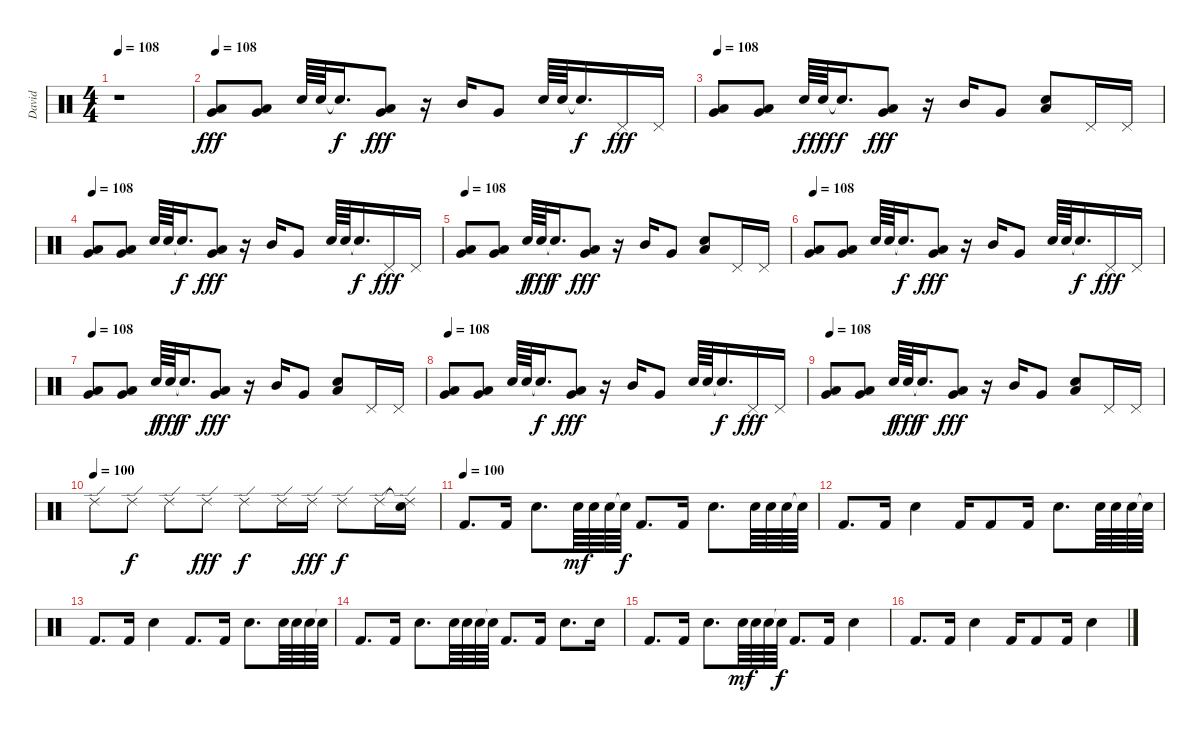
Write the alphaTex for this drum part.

\track ("David" "David") {instrument percussion}
\staff {score}
\articulation defaults
\ts (4 4)
\tempo 108
\clef neutral
\ks c
r.1{dy f} |
\tempo 108
("Low Tom (hit)" "Very Low Tom (hit)").8{dy fff} ("Low Tom (hit)" "Very Low Tom (hit)").8 "Snare (hit) 2".64 "Snare (hit) 2".64 "Snare (hit)"{t}.16{d dy f} ("Low Tom (hit)" "Very Low Tom (hit)").8{dy fff} r.16 "Mid Tom (hit)".16 "Very Low Tom (hit)".8 "Snare (hit) 2".64 "Snare (hit) 2".64 "Snare (hit) 2"{t}.16{d dy f} "Pedal Hi-Hat (hit)".16{dy fff} "Pedal Hi-Hat (hit)".16 |
\tempo 108
("Low Tom (hit)" "Very Low Tom (hit)").8 ("Low Tom (hit)" "Very Low Tom (hit)").8 "Snare (hit) 2".64{dy f} "Snare (hit) 2".64{dy fff} "Snare (hit)"{t}.16{d dy f} ("Low Tom (hit)" "Very Low Tom (hit)").8{dy fff} r.16 "Mid Tom (hit)".16 "Very Low Tom (hit)".8 ("Snare (hit) 2" "Low Floor Tom (hit)").8 "Pedal Hi-Hat (hit)".16 "Pedal Hi-Hat (hit)".16 |
\tempo 108
("Low Tom (hit)" "Very Low Tom (hit)").8 ("Low Tom (hit)" "Very Low Tom (hit)").8 "Snare (hit) 2".64 "Snare (hit) 2".64 "Snare (hit)"{t}.16{d dy f} ("Low Tom (hit)" "Very Low Tom (hit)").8{dy fff} r.16 "Mid Tom (hit)".16 "Very Low Tom (hit)".8 "Snare (hit) 2".64 "Snare (hit) 2".64 "Snare (hit) 2"{t}.16{d dy f} "Pedal Hi-Hat (hit)".16{dy fff} "Pedal Hi-Hat (hit)".16 |
\tempo 108
("Low Tom (hit)" "Very Low Tom (hit)").8 ("Low Tom (hit)" "Very Low Tom (hit)").8 "Snare (hit) 2".64{dy f} "Snare (hit) 2".64{dy fff} "Snare (hit)"{t}.16{d dy f} ("Low Tom (hit)" "Very Low Tom (hit)").8{dy fff} r.16 "Mid Tom (hit)".16 "Very Low Tom (hit)".8 ("Snare (hit) 2" "Low Floor Tom (hit)").8 "Pedal Hi-Hat (hit)".16 "Pedal Hi-Hat (hit)".16 |
\tempo 108
("Low Tom (hit)" "Very Low Tom (hit)").8 ("Low Tom (hit)" "Very Low Tom (hit)").8 "Snare (hit) 2".64 "Snare (hit) 2".64 "Snare (hit)"{t}.16{d dy f} ("Low Tom (hit)" "Very Low Tom (hit)").8{dy fff} r.16 "Mid Tom (hit)".16 "Very Low Tom (hit)".8 "Snare (hit) 2".64 "Snare (hit) 2".64 "Snare (hit) 2"{t}.16{d dy f} "Pedal Hi-Hat (hit)".16{dy fff} "Pedal Hi-Hat (hit)".16 |
\tempo 108
("Low Tom (hit)" "Very Low Tom (hit)").8 ("Low Tom (hit)" "Very Low Tom (hit)").8 "Snare (hit) 2".64{dy f} "Snare (hit) 2".64{dy fff} "Snare (hit)"{t}.16{d dy f} ("Low Tom (hit)" "Very Low Tom (hit)").8{dy fff} r.16 "Mid Tom (hit)".16 "Very Low Tom (hit)".8 ("Snare (hit) 2" "Low Floor Tom (hit)").8 "Pedal Hi-Hat (hit)".16 "Pedal Hi-Hat (hit)".16 |
\tempo 108
("Low Tom (hit)" "Very Low Tom (hit)").8 ("Low Tom (hit)" "Very Low Tom (hit)").8 "Snare (hit) 2".64 "Snare (hit) 2".64 "Snare (hit)"{t}.16{d dy f} ("Low Tom (hit)" "Very Low Tom (hit)").8{dy fff} r.16 "Mid Tom (hit)".16 "Very Low Tom (hit)".8 "Snare (hit) 2".64 "Snare (hit) 2".64 "Snare (hit) 2"{t}.16{d dy f} "Pedal Hi-Hat (hit)".16{dy fff} "Pedal Hi-Hat (hit)".16 |
\tempo 108
("Low Tom (hit)" "Very Low Tom (hit)").8 ("Low Tom (hit)" "Very Low Tom (hit)").8 "Snare (hit) 2".64{dy f} "Snare (hit) 2".64{dy fff} "Snare (hit)"{t}.16{d dy f} ("Low Tom (hit)" "Very Low Tom (hit)").8{dy fff} r.16 "Mid Tom (hit)".16 "Very Low Tom (hit)".8 ("Snare (hit) 2" "Low Floor Tom (hit)").8 "Pedal Hi-Hat (hit)".16 "Pedal Hi-Hat (hit)".16 |
\tempo (100)
"Ride (edge) 2".8 "Ride (edge) 2".8{dy f} "Ride (edge) 2".8 "Ride (edge) 2".8{dy fff} "Ride (edge) 2".8{dy f} "Ride (edge) 2".16 "Ride (edge) 2".16{dy fff} "Ride (edge) 2".8{dy f} "Ride (edge) 2".16 ("Ride (edge) 2"{t} "Snare (hit) 2").16 |
\tempo (100)
"Kick (hit) 2".8{d} "Kick (hit) 2".16 "Snare (hit) 2".8{d} "Snare (hit) 2".64{dy mf} "Snare (hit) 2".64 "Snare (hit) 2".64 "Snare (hit)"{t}.64{dy f} "Kick (hit) 2".8{d} "Kick (hit) 2".16 "Snare (hit) 2".8{d} "Snare (hit) 2".64 "Snare (hit) 2".64 "Snare (hit) 2".64 "Snare (hit)"{t}.64 |
"Kick (hit) 2".8{d} "Kick (hit) 2".16 "Snare (hit) 2".4 "Kick (hit) 2".16 "Kick (hit) 2".8 "Kick (hit) 2".16 "Snare (hit) 2".8{d} "Snare (hit) 2".64 "Snare (hit) 2".64 "Snare (hit) 2".64 "Snare (hit)"{t}.64 |
"Kick (hit) 2".8{d} "Kick (hit) 2".16 "Snare (hit) 2".4 "Kick (hit) 2".8{d} "Kick (hit) 2".16 "Snare (hit) 2".8{d} "Snare (hit) 2".64 "Snare (hit) 2".64 "Snare (hit) 2".64 "Snare (hit)"{t}.64 |
"Kick (hit) 2".8{d} "Kick (hit) 2".16 "Snare (hit) 2".8{d} "Snare (hit) 2".64 "Snare (hit) 2".64 "Snare (hit) 2".64 "Snare (hit)"{t}.64 "Kick (hit) 2".8{d} "Kick (hit) 2".16 "Snare (hit) 2".8{d} "Snare (hit) 2".16 |
"Kick (hit) 2".8{d} "Kick (hit) 2".16 "Snare (hit) 2".8{d} "Snare (hit) 2".64{dy mf} "Snare (hit) 2".64 "Snare (hit) 2".64 "Snare (hit)"{t}.64{dy f} "Kick (hit) 2".8{d} "Kick (hit) 2".16 "Snare (hit) 2".4 |
"Kick (hit) 2".8{d} "Kick (hit) 2".16 "Snare (hit) 2".4 "Kick (hit) 2".16 "Kick (hit) 2".8 "Kick (hit) 2".16 "Snare (hit) 2".4
